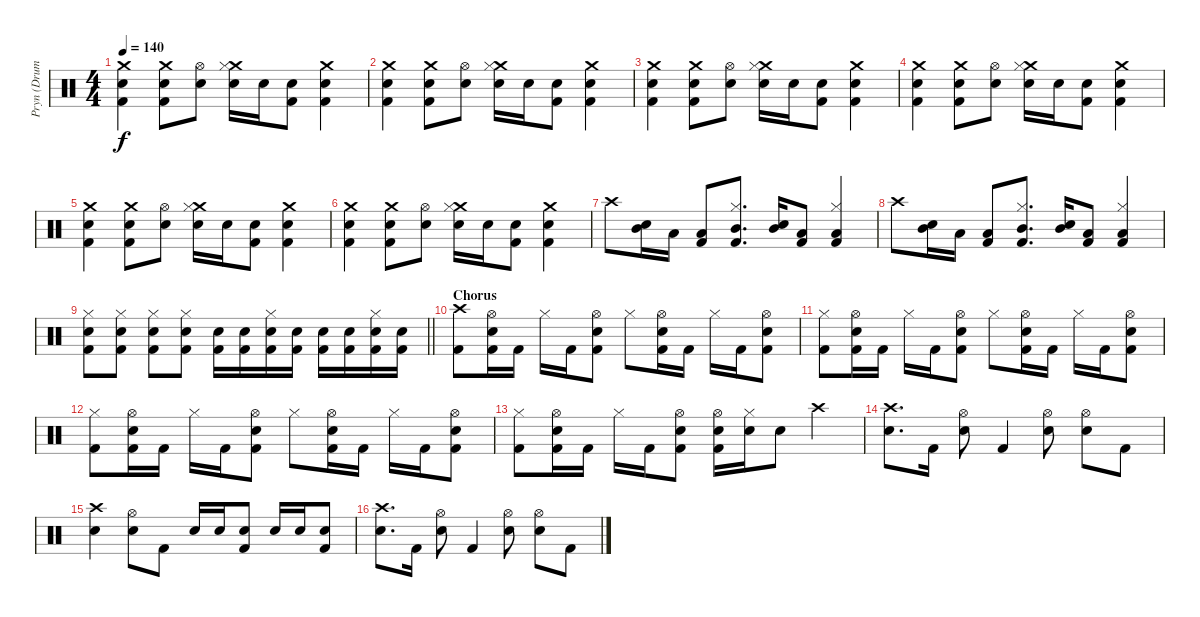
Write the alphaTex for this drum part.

\track ("Pryn (Drums)" "Pryn (Drum") {instrument percussion}
\staff {score}
\articulation defaults
\ts (4 4)
\tempo 140
\clef neutral
\ks c
("Crash medium (hit)" "Snare (hit) 2" "Kick (hit) 2").4{dy f} ("Crash medium (hit)" "Snare (hit) 2" "Kick (hit) 2").8 ("Hi-Hat (open)" "Snare (hit) 2").8 ("Crash medium (hit)" "Snare (hit) 2" "Hi-Hat (closed)").16 "Snare (hit) 2".16 ("Snare (hit) 2" "Kick (hit) 2").8 ("Crash medium (hit)" "Snare (hit) 2" "Kick (hit) 2").4 |
("Crash medium (hit)" "Snare (hit) 2" "Kick (hit) 2").4 ("Crash medium (hit)" "Snare (hit) 2" "Kick (hit) 2").8 ("Hi-Hat (open)" "Snare (hit) 2").8 ("Crash medium (hit)" "Snare (hit) 2" "Hi-Hat (closed)").16 "Snare (hit) 2".16 ("Snare (hit) 2" "Kick (hit) 2").8 ("Crash medium (hit)" "Snare (hit) 2" "Kick (hit) 2").4 |
("Crash medium (hit)" "Snare (hit) 2" "Kick (hit) 2").4 ("Crash medium (hit)" "Snare (hit) 2" "Kick (hit) 2").8 ("Hi-Hat (open)" "Snare (hit) 2").8 ("Crash medium (hit)" "Snare (hit) 2" "Hi-Hat (closed)").16 "Snare (hit) 2".16 ("Snare (hit) 2" "Kick (hit) 2").8 ("Crash medium (hit)" "Snare (hit) 2" "Kick (hit) 2").4 |
("Crash medium (hit)" "Snare (hit) 2" "Kick (hit) 2").4 ("Crash medium (hit)" "Snare (hit) 2" "Kick (hit) 2").8 ("Hi-Hat (open)" "Snare (hit) 2").8 ("Crash medium (hit)" "Snare (hit) 2" "Hi-Hat (closed)").16 "Snare (hit) 2".16 ("Snare (hit) 2" "Kick (hit) 2").8 ("Crash medium (hit)" "Snare (hit) 2" "Kick (hit) 2").4 |
("Crash medium (hit)" "Snare (hit) 2" "Kick (hit) 2").4 ("Crash medium (hit)" "Snare (hit) 2" "Kick (hit) 2").8 ("Hi-Hat (open)" "Snare (hit) 2").8 ("Crash medium (hit)" "Snare (hit) 2" "Hi-Hat (closed)").16 "Snare (hit) 2".16 ("Snare (hit) 2" "Kick (hit) 2").8 ("Crash medium (hit)" "Snare (hit) 2" "Kick (hit) 2").4 |
("Crash medium (hit)" "Snare (hit) 2" "Kick (hit) 2").4 ("Crash medium (hit)" "Snare (hit) 2" "Kick (hit) 2").8 ("Hi-Hat (open)" "Snare (hit) 2").8 ("Crash medium (hit)" "Snare (hit) 2" "Hi-Hat (closed)").16 "Snare (hit) 2".16 ("Snare (hit) 2" "Kick (hit) 2").8 ("Crash medium (hit)" "Snare (hit) 2" "Kick (hit) 2").4 |
"Crash high (hit)".8 ("Mid Tom (hit)" "Snare (hit) 2").16 "Low Tom (hit)".16 ("Low Floor Tom (hit)" "Kick (hit) 2").8 ("Mid Tom (hit)" "Kick (hit) 2" "Hi-Hat (closed)").8{d} ("Mid Tom (hit)" "Snare (hit) 2").16 ("Low Tom (hit)" "Kick (hit) 2").8 ("Low Floor Tom (hit)" "Kick (hit) 2" "Hi-Hat (closed)").4 |
"Crash high (hit)".8 ("Mid Tom (hit)" "Snare (hit) 2").16 "Low Tom (hit)".16 ("Low Floor Tom (hit)" "Kick (hit) 2").8 ("Mid Tom (hit)" "Kick (hit) 2" "Hi-Hat (closed)").8{d} ("Mid Tom (hit)" "Snare (hit) 2").16 ("Low Tom (hit)" "Kick (hit) 2").8 ("Low Floor Tom (hit)" "Kick (hit) 2" "Hi-Hat (closed)").4 |
\barLineRight lightlight
("Snare (hit) 2" "Hi-Hat (closed)" "Kick (hit) 2").8 ("Snare (hit) 2" "Hi-Hat (closed)" "Kick (hit) 2").8 ("Snare (hit) 2" "Hi-Hat (closed)" "Kick (hit) 2").8 ("Snare (hit) 2" "Hi-Hat (closed)" "Kick (hit) 2").8 ("Snare (hit) 2" "Kick (hit) 2").16 ("Snare (hit) 2" "Kick (hit) 2").16 ("Snare (hit) 2" "Hi-Hat (closed)" "Kick (hit) 2").16 ("Snare (hit) 2" "Kick (hit) 2").16 ("Snare (hit) 2" "Kick (hit) 2").16 ("Snare (hit) 2" "Kick (hit) 2").16 ("Snare (hit) 2" "Hi-Hat (closed)" "Kick (hit) 2").16 ("Snare (hit) 2" "Kick (hit) 2").16 |
\section ("" "Chorus")
("Crash high (hit)" "Kick (hit) 2").8 ("Snare (hit) 2" "Hi-Hat (open)" "Kick (hit) 2").16 "Kick (hit) 2".16 "Hi-Hat (closed)".16 "Kick (hit) 2".16 ("Snare (hit) 2" "Hi-Hat (open)" "Kick (hit) 2").8 "Hi-Hat (closed)".8 ("Snare (hit) 2" "Hi-Hat (open)" "Kick (hit) 2").16 "Kick (hit) 2".16 "Hi-Hat (closed)".16 "Kick (hit) 2".16 ("Snare (hit) 2" "Hi-Hat (open)" "Kick (hit) 2").8 |
("Kick (hit) 2" "Hi-Hat (closed)").8 ("Snare (hit) 2" "Hi-Hat (open)" "Kick (hit) 2").16 "Kick (hit) 2".16 "Hi-Hat (closed)".16 "Kick (hit) 2".16 ("Snare (hit) 2" "Hi-Hat (open)" "Kick (hit) 2").8 "Hi-Hat (closed)".8 ("Snare (hit) 2" "Hi-Hat (open)" "Kick (hit) 2").16 "Kick (hit) 2".16 "Hi-Hat (closed)".16 "Kick (hit) 2".16 ("Snare (hit) 2" "Hi-Hat (open)" "Kick (hit) 2").8 |
("Kick (hit) 2" "Hi-Hat (closed)").8 ("Snare (hit) 2" "Hi-Hat (open)" "Kick (hit) 2").16 "Kick (hit) 2".16 "Hi-Hat (closed)".16 "Kick (hit) 2".16 ("Snare (hit) 2" "Hi-Hat (open)" "Kick (hit) 2").8 "Hi-Hat (closed)".8 ("Snare (hit) 2" "Hi-Hat (open)" "Kick (hit) 2").16 "Kick (hit) 2".16 "Hi-Hat (closed)".16 "Kick (hit) 2".16 ("Snare (hit) 2" "Hi-Hat (open)" "Kick (hit) 2").8 |
("Kick (hit) 2" "Hi-Hat (closed)").8 ("Snare (hit) 2" "Hi-Hat (open)" "Kick (hit) 2").16 "Kick (hit) 2".16 "Hi-Hat (closed)".16 "Kick (hit) 2".16 ("Snare (hit) 2" "Hi-Hat (open)" "Kick (hit) 2").8 ("Snare (hit) 2" "Hi-Hat (open)" "Kick (hit) 2").16 ("Snare (hit) 2" "Hi-Hat (closed)").16 "Snare (hit) 2".8 "Crash high (hit)".4 |
("Crash high (hit)" "Snare (hit) 2").8{d} "Kick (hit) 2".16 ("Hi-Hat (open)" "Snare (hit) 2").8 "Kick (hit) 2".4 ("Hi-Hat (open)" "Snare (hit) 2").8 ("Hi-Hat (open)" "Snare (hit) 2").8 "Kick (hit) 2".8 |
("Crash high (hit)" "Snare (hit) 2").4 ("Hi-Hat (open)" "Snare (hit) 2").8 "Kick (hit) 2".8 "Snare (hit) 2".16 "Snare (hit) 2".16 ("Snare (hit) 2" "Kick (hit) 2").8 "Snare (hit) 2".16 "Snare (hit) 2".16 ("Snare (hit) 2" "Kick (hit) 2").8 |
("Crash high (hit)" "Snare (hit) 2").8{d} "Kick (hit) 2".16 ("Hi-Hat (open)" "Snare (hit) 2").8 "Kick (hit) 2".4 ("Hi-Hat (open)" "Snare (hit) 2").8 ("Hi-Hat (open)" "Snare (hit) 2").8 "Kick (hit) 2".8
